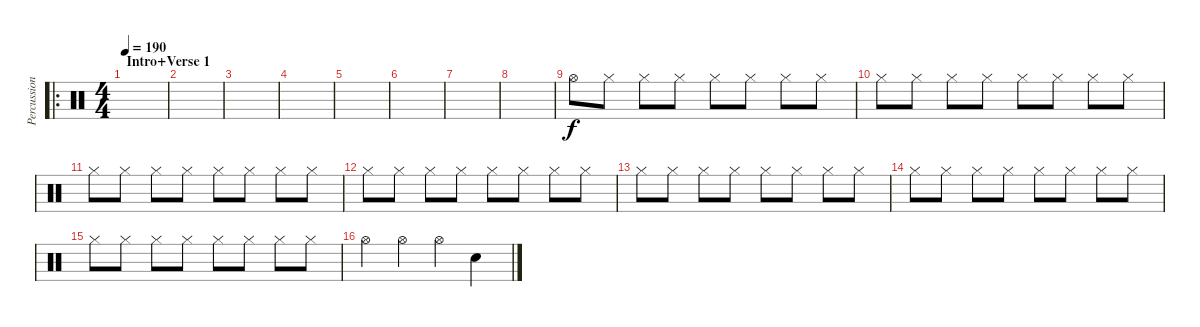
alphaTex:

\track ("Percussion" "Percussion") {instrument percussion}
\staff {score}
\articulation defaults
\ro
\ts (4 4)
\section ("" "Intro+Verse 1")
\tempo 190
\clef neutral
\ks c
|
|
|
|
|
|
|
|
"Hi-Hat (open)".8 "Hi-Hat (closed)".8 "Hi-Hat (closed)".8 "Hi-Hat (closed)".8 "Hi-Hat (closed)".8 "Hi-Hat (closed)".8 "Hi-Hat (closed)".8 "Hi-Hat (closed)".8 |
"Hi-Hat (closed)".8 "Hi-Hat (closed)".8 "Hi-Hat (closed)".8 "Hi-Hat (closed)".8 "Hi-Hat (closed)".8 "Hi-Hat (closed)".8 "Hi-Hat (closed)".8 "Hi-Hat (closed)".8 |
"Hi-Hat (closed)".8 "Hi-Hat (closed)".8 "Hi-Hat (closed)".8 "Hi-Hat (closed)".8 "Hi-Hat (closed)".8 "Hi-Hat (closed)".8 "Hi-Hat (closed)".8 "Hi-Hat (closed)".8 |
"Hi-Hat (closed)".8 "Hi-Hat (closed)".8 "Hi-Hat (closed)".8 "Hi-Hat (closed)".8 "Hi-Hat (closed)".8 "Hi-Hat (closed)".8 "Hi-Hat (closed)".8 "Hi-Hat (closed)".8 |
"Hi-Hat (closed)".8 "Hi-Hat (closed)".8 "Hi-Hat (closed)".8 "Hi-Hat (closed)".8 "Hi-Hat (closed)".8 "Hi-Hat (closed)".8 "Hi-Hat (closed)".8 "Hi-Hat (closed)".8 |
"Hi-Hat (closed)".8 "Hi-Hat (closed)".8 "Hi-Hat (closed)".8 "Hi-Hat (closed)".8 "Hi-Hat (closed)".8 "Hi-Hat (closed)".8 "Hi-Hat (closed)".8 "Hi-Hat (closed)".8 |
"Hi-Hat (closed)".8 "Hi-Hat (closed)".8 "Hi-Hat (closed)".8 "Hi-Hat (closed)".8 "Hi-Hat (closed)".8 "Hi-Hat (closed)".8 "Hi-Hat (closed)".8 "Hi-Hat (closed)".8 |
"Hi-Hat (open)".4 "Hi-Hat (open)".4 "Hi-Hat (open)".4 "Electric Snare (hit)".4
